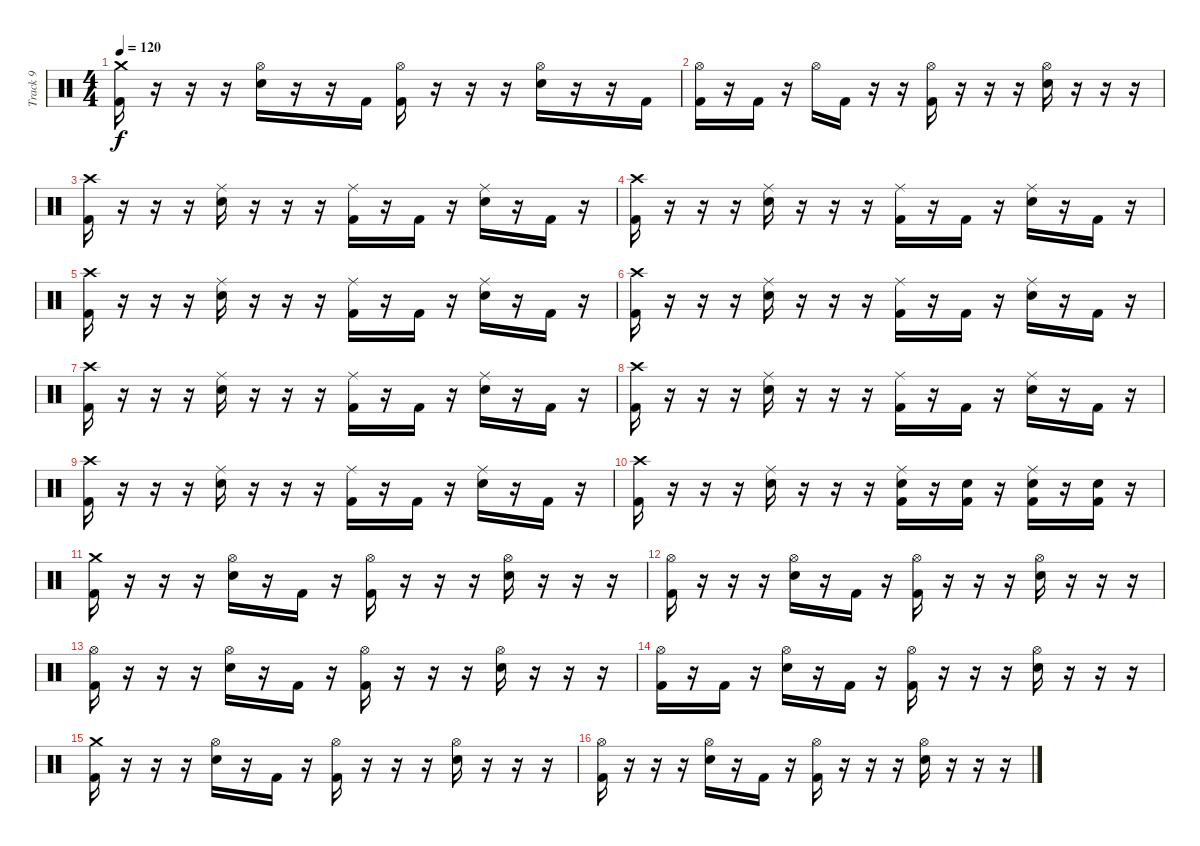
\track ("Track 9" "Track 9") {instrument percussion}
\staff {score}
\articulation defaults
\ts (4 4)
\tempo 120
\clef neutral
\ks c
("Crash medium (hit)" "Kick (hit) 2").16{dy f} r.16 r.16 r.16 ("Hi-Hat (open)" "Electric Snare (hit)").16 r.16 r.16 "Kick (hit) 2".16 ("Hi-Hat (open)" "Kick (hit) 2").16 r.16 r.16 r.16 ("Hi-Hat (open)" "Electric Snare (hit)").16 r.16 r.16 "Kick (hit) 2".16 |
("Hi-Hat (open)" "Kick (hit) 2").16 r.16 "Kick (hit) 2".16 r.16 "Hi-Hat (open)".16 "Kick (hit) 2".16 r.16 r.16 ("Hi-Hat (open)" "Kick (hit) 2").16 r.16 r.16 r.16 ("Hi-Hat (open)" "Electric Snare (hit)").16 r.16 r.16 r.16 |
("Crash high (hit)" "Kick (hit) 2").16 r.16 r.16 r.16 ("Ride (middle)" "Electric Snare (hit)").16 r.16 r.16 r.16 ("Ride (middle)" "Kick (hit) 2").16 r.16 "Kick (hit) 2".16 r.16 ("Ride (middle)" "Electric Snare (hit)").16 r.16 "Kick (hit) 2".16 r.16 |
("Crash high (hit)" "Kick (hit) 2").16 r.16 r.16 r.16 ("Ride (middle)" "Electric Snare (hit)").16 r.16 r.16 r.16 ("Ride (middle)" "Kick (hit) 2").16 r.16 "Kick (hit) 2".16 r.16 ("Ride (middle)" "Electric Snare (hit)").16 r.16 "Kick (hit) 2".16 r.16 |
("Crash high (hit)" "Kick (hit) 2").16 r.16 r.16 r.16 ("Ride (middle)" "Electric Snare (hit)").16 r.16 r.16 r.16 ("Ride (middle)" "Kick (hit) 2").16 r.16 "Kick (hit) 2".16 r.16 ("Ride (middle)" "Electric Snare (hit)").16 r.16 "Kick (hit) 2".16 r.16 |
("Crash high (hit)" "Kick (hit) 2").16 r.16 r.16 r.16 ("Ride (middle)" "Electric Snare (hit)").16 r.16 r.16 r.16 ("Ride (middle)" "Kick (hit) 2").16 r.16 "Kick (hit) 2".16 r.16 ("Ride (middle)" "Electric Snare (hit)").16 r.16 "Kick (hit) 2".16 r.16 |
("Crash high (hit)" "Kick (hit) 2").16 r.16 r.16 r.16 ("Ride (middle)" "Electric Snare (hit)").16 r.16 r.16 r.16 ("Ride (middle)" "Kick (hit) 2").16 r.16 "Kick (hit) 2".16 r.16 ("Ride (middle)" "Electric Snare (hit)").16 r.16 "Kick (hit) 2".16 r.16 |
("Crash high (hit)" "Kick (hit) 2").16 r.16 r.16 r.16 ("Ride (middle)" "Electric Snare (hit)").16 r.16 r.16 r.16 ("Ride (middle)" "Kick (hit) 2").16 r.16 "Kick (hit) 2".16 r.16 ("Ride (middle)" "Electric Snare (hit)").16 r.16 "Kick (hit) 2".16 r.16 |
("Crash high (hit)" "Kick (hit) 2").16 r.16 r.16 r.16 ("Ride (middle)" "Electric Snare (hit)").16 r.16 r.16 r.16 ("Ride (middle)" "Kick (hit) 2").16 r.16 "Kick (hit) 2".16 r.16 ("Ride (middle)" "Electric Snare (hit)").16 r.16 "Kick (hit) 2".16 r.16 |
("Crash high (hit)" "Kick (hit) 2").16 r.16 r.16 r.16 ("Ride (middle)" "Electric Snare (hit)").16 r.16 r.16 r.16 ("Ride (middle)" "Electric Snare (hit)" "Kick (hit) 2").16 r.16 ("Electric Snare (hit)" "Kick (hit) 2").16 r.16 ("Ride (middle)" "Electric Snare (hit)" "Kick (hit) 2").16 r.16 ("Electric Snare (hit)" "Kick (hit) 2").16 r.16 |
("Crash medium (hit)" "Kick (hit) 2").16 r.16 r.16 r.16 ("Hi-Hat (open)" "Electric Snare (hit)").16 r.16 "Kick (hit) 2".16 r.16 ("Hi-Hat (open)" "Kick (hit) 2").16 r.16 r.16 r.16 ("Hi-Hat (open)" "Electric Snare (hit)").16 r.16 r.16 r.16 |
("Hi-Hat (open)" "Kick (hit) 2").16 r.16 r.16 r.16 ("Hi-Hat (open)" "Electric Snare (hit)").16 r.16 "Kick (hit) 2".16 r.16 ("Hi-Hat (open)" "Kick (hit) 2").16 r.16 r.16 r.16 ("Hi-Hat (open)" "Electric Snare (hit)").16 r.16 r.16 r.16 |
("Hi-Hat (open)" "Kick (hit) 2").16 r.16 r.16 r.16 ("Hi-Hat (open)" "Electric Snare (hit)").16 r.16 "Kick (hit) 2".16 r.16 ("Hi-Hat (open)" "Kick (hit) 2").16 r.16 r.16 r.16 ("Hi-Hat (open)" "Electric Snare (hit)").16 r.16 r.16 r.16 |
("Hi-Hat (open)" "Kick (hit) 2").16 r.16 "Kick (hit) 2".16 r.16 ("Hi-Hat (open)" "Electric Snare (hit)").16 r.16 "Kick (hit) 2".16 r.16 ("Hi-Hat (open)" "Kick (hit) 2").16 r.16 r.16 r.16 ("Hi-Hat (open)" "Electric Snare (hit)").16 r.16 r.16 r.16 |
("Crash medium (hit)" "Kick (hit) 2").16 r.16 r.16 r.16 ("Hi-Hat (open)" "Electric Snare (hit)").16 r.16 "Kick (hit) 2".16 r.16 ("Hi-Hat (open)" "Kick (hit) 2").16 r.16 r.16 r.16 ("Hi-Hat (open)" "Electric Snare (hit)").16 r.16 r.16 r.16 |
("Hi-Hat (open)" "Kick (hit) 2").16 r.16 r.16 r.16 ("Hi-Hat (open)" "Electric Snare (hit)").16 r.16 "Kick (hit) 2".16 r.16 ("Hi-Hat (open)" "Kick (hit) 2").16 r.16 r.16 r.16 ("Hi-Hat (open)" "Electric Snare (hit)").16 r.16 r.16 r.16
